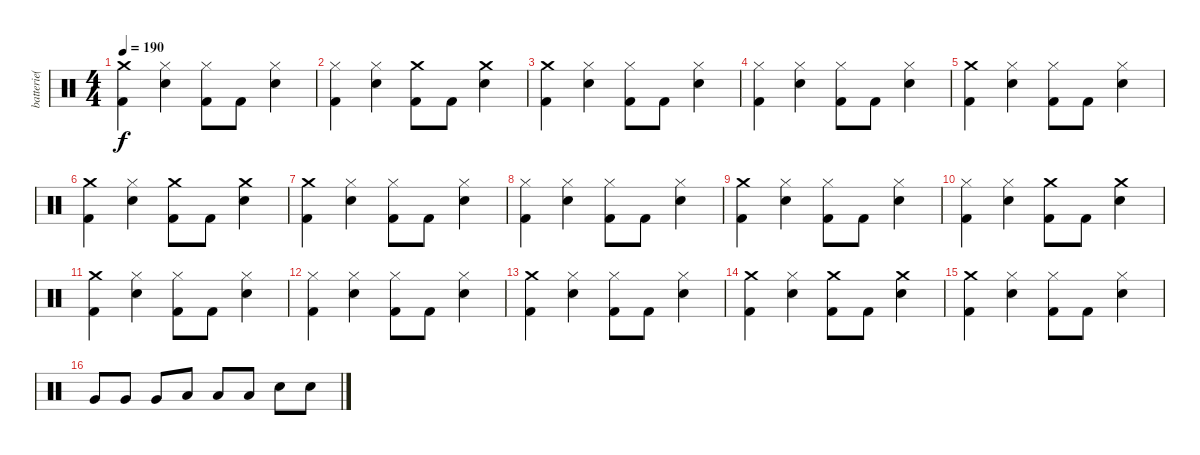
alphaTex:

\track ("batterie( Byron McMackin )" "batterie( ") {instrument percussion}
\staff {score}
\articulation defaults
\ts (4 4)
\tempo 190
\clef neutral
\ks c
("Crash medium (hit)" "Kick (hit) 2").4{dy f} ("Hi-Hat (closed)" "Snare (hit) 2").4 ("Hi-Hat (closed)" "Kick (hit) 2").8 "Kick (hit) 2".8 ("Hi-Hat (closed)" "Snare (hit) 2").4 |
("Hi-Hat (closed)" "Kick (hit) 2").4 ("Hi-Hat (closed)" "Snare (hit) 2").4 ("Crash medium (hit)" "Kick (hit) 2").8 "Kick (hit) 2".8 ("Crash medium (hit)" "Snare (hit) 2").4 |
("Crash medium (hit)" "Kick (hit) 2").4 ("Hi-Hat (closed)" "Snare (hit) 2").4 ("Hi-Hat (closed)" "Kick (hit) 2").8 "Kick (hit) 2".8 ("Hi-Hat (closed)" "Snare (hit) 2").4 |
("Hi-Hat (closed)" "Kick (hit) 2").4 ("Hi-Hat (closed)" "Snare (hit) 2").4 ("Hi-Hat (closed)" "Kick (hit) 2").8 "Kick (hit) 2".8 ("Hi-Hat (closed)" "Snare (hit) 2").4 |
("Crash medium (hit)" "Kick (hit) 2").4 ("Hi-Hat (closed)" "Snare (hit) 2").4 ("Hi-Hat (closed)" "Kick (hit) 2").8 "Kick (hit) 2".8 ("Hi-Hat (closed)" "Snare (hit) 2").4 |
("Crash medium (hit)" "Kick (hit) 2").4 ("Hi-Hat (closed)" "Snare (hit) 2").4 ("Crash medium (hit)" "Kick (hit) 2").8 "Kick (hit) 2".8 ("Crash medium (hit)" "Snare (hit) 2").4 |
("Crash medium (hit)" "Kick (hit) 2").4 ("Hi-Hat (closed)" "Snare (hit) 2").4 ("Hi-Hat (closed)" "Kick (hit) 2").8 "Kick (hit) 2".8 ("Hi-Hat (closed)" "Snare (hit) 2").4 |
("Hi-Hat (closed)" "Kick (hit) 2").4 ("Hi-Hat (closed)" "Snare (hit) 2").4 ("Hi-Hat (closed)" "Kick (hit) 2").8 "Kick (hit) 2".8 ("Hi-Hat (closed)" "Snare (hit) 2").4 |
("Crash medium (hit)" "Kick (hit) 2").4 ("Hi-Hat (closed)" "Snare (hit) 2").4 ("Hi-Hat (closed)" "Kick (hit) 2").8 "Kick (hit) 2".8 ("Hi-Hat (closed)" "Snare (hit) 2").4 |
("Hi-Hat (closed)" "Kick (hit) 2").4 ("Hi-Hat (closed)" "Snare (hit) 2").4 ("Crash medium (hit)" "Kick (hit) 2").8 "Kick (hit) 2".8 ("Crash medium (hit)" "Snare (hit) 2").4 |
("Crash medium (hit)" "Kick (hit) 2").4 ("Hi-Hat (closed)" "Snare (hit) 2").4 ("Hi-Hat (closed)" "Kick (hit) 2").8 "Kick (hit) 2".8 ("Hi-Hat (closed)" "Snare (hit) 2").4 |
("Hi-Hat (closed)" "Kick (hit) 2").4 ("Hi-Hat (closed)" "Snare (hit) 2").4 ("Hi-Hat (closed)" "Kick (hit) 2").8 "Kick (hit) 2".8 ("Hi-Hat (closed)" "Snare (hit) 2").4 |
("Crash medium (hit)" "Kick (hit) 2").4 ("Hi-Hat (closed)" "Snare (hit) 2").4 ("Hi-Hat (closed)" "Kick (hit) 2").8 "Kick (hit) 2".8 ("Hi-Hat (closed)" "Snare (hit) 2").4 |
("Crash medium (hit)" "Kick (hit) 2").4 ("Hi-Hat (closed)" "Snare (hit) 2").4 ("Crash medium (hit)" "Kick (hit) 2").8 "Kick (hit) 2".8 ("Crash medium (hit)" "Snare (hit) 2").4 |
("Crash medium (hit)" "Kick (hit) 2").4 ("Hi-Hat (closed)" "Snare (hit) 2").4 ("Hi-Hat (closed)" "Kick (hit) 2").8 "Kick (hit) 2".8 ("Hi-Hat (closed)" "Snare (hit) 2").4 |
"Very Low Tom (hit)".8 "Very Low Tom (hit)".8 "Very Low Tom (hit)".8 "Low Tom (hit)".8 "Low Tom (hit)".8 "Low Tom (hit)".8 "Snare (hit) 2".8 "Snare (hit) 2".8
